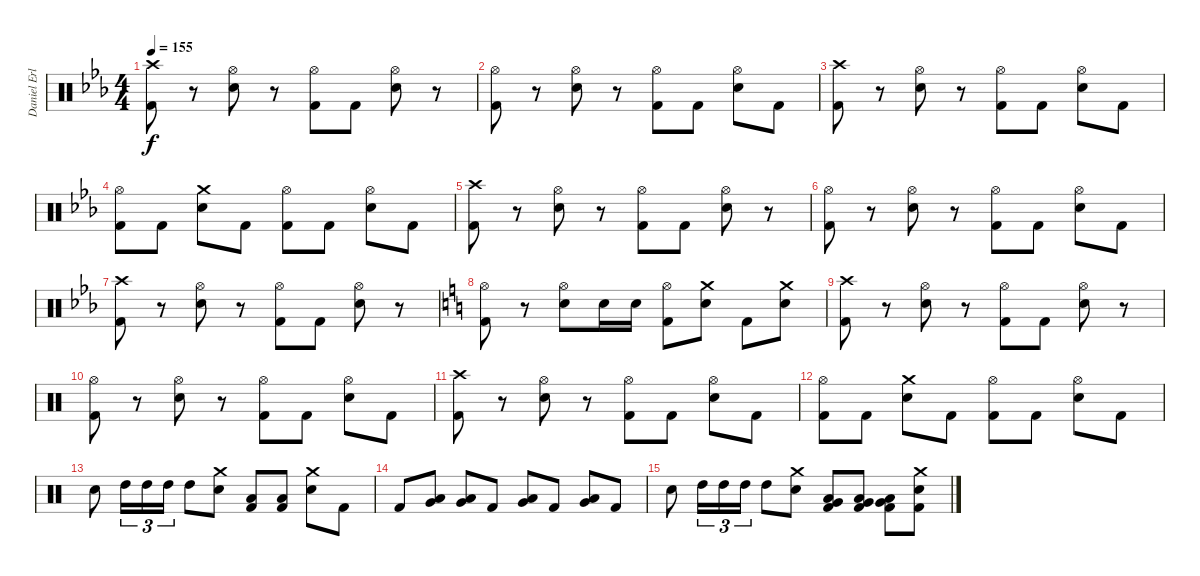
\track ("Daniel Erlandsson" "Daniel Erl") {instrument percussion}
\staff {score}
\articulation defaults
\ts (4 4)
\tempo 155
\clef neutral
\ks cminor
("Crash high (hit)" "Kick (hit) 2").8{dy f} r.8 ("Hi-Hat (open)" "Snare (hit) 2").8 r.8 ("Hi-Hat (open)" "Kick (hit) 2").8 "Kick (hit) 2".8 ("Hi-Hat (open)" "Snare (hit) 2").8 r.8 |
("Hi-Hat (open)" "Kick (hit) 2").8 r.8 ("Hi-Hat (open)" "Snare (hit) 2").8 r.8 ("Hi-Hat (open)" "Kick (hit) 2").8 "Kick (hit) 2".8 ("Hi-Hat (open)" "Snare (hit) 2").8 "Kick (hit) 2".8 |
("Crash high (hit)" "Kick (hit) 2").8 r.8 ("Hi-Hat (open)" "Snare (hit) 2").8 r.8 ("Hi-Hat (open)" "Kick (hit) 2").8 "Kick (hit) 2".8 ("Hi-Hat (open)" "Snare (hit) 2").8 "Kick (hit) 2".8 |
("Hi-Hat (open)" "Kick (hit) 2").8 "Kick (hit) 2".8 ("Crash medium (hit)" "Snare (hit) 2").8 "Kick (hit) 2".8 ("Hi-Hat (open)" "Kick (hit) 2").8 "Kick (hit) 2".8 ("Hi-Hat (open)" "Snare (hit) 2").8 "Kick (hit) 2".8 |
("Crash high (hit)" "Kick (hit) 2").8 r.8 ("Hi-Hat (open)" "Snare (hit) 2").8 r.8 ("Hi-Hat (open)" "Kick (hit) 2").8 "Kick (hit) 2".8 ("Hi-Hat (open)" "Snare (hit) 2").8 r.8 |
("Hi-Hat (open)" "Kick (hit) 2").8 r.8 ("Hi-Hat (open)" "Snare (hit) 2").8 r.8 ("Hi-Hat (open)" "Kick (hit) 2").8 "Kick (hit) 2".8 ("Hi-Hat (open)" "Snare (hit) 2").8 "Kick (hit) 2".8 |
("Crash high (hit)" "Kick (hit) 2").8 r.8 ("Hi-Hat (open)" "Snare (hit) 2").8 r.8 ("Hi-Hat (open)" "Kick (hit) 2").8 "Kick (hit) 2".8 ("Hi-Hat (open)" "Snare (hit) 2").8 r.8 |
\ks c
("Hi-Hat (open)" "Kick (hit) 2").8 r.8 ("Hi-Hat (open)" "Snare (hit) 2").8 "Snare (hit) 2".16 "Snare (hit) 2".16 ("Hi-Hat (open)" "Kick (hit) 2").8 ("Crash medium (hit)" "Snare (hit) 2").8 "Kick (hit) 2".8 ("Crash medium (hit)" "Snare (hit) 2").8 |
("Crash high (hit)" "Kick (hit) 2").8 r.8 ("Hi-Hat (open)" "Snare (hit) 2").8 r.8 ("Hi-Hat (open)" "Kick (hit) 2").8 "Kick (hit) 2".8 ("Hi-Hat (open)" "Snare (hit) 2").8 r.8 |
("Hi-Hat (open)" "Kick (hit) 2").8 r.8 ("Hi-Hat (open)" "Snare (hit) 2").8 r.8 ("Hi-Hat (open)" "Kick (hit) 2").8 "Kick (hit) 2".8 ("Hi-Hat (open)" "Snare (hit) 2").8 "Kick (hit) 2".8 |
("Crash high (hit)" "Kick (hit) 2").8 r.8 ("Hi-Hat (open)" "Snare (hit) 2").8 r.8 ("Hi-Hat (open)" "Kick (hit) 2").8 "Kick (hit) 2".8 ("Hi-Hat (open)" "Snare (hit) 2").8 "Kick (hit) 2".8 |
("Hi-Hat (open)" "Kick (hit) 2").8 "Kick (hit) 2".8 ("Crash medium (hit)" "Snare (hit) 2").8 "Kick (hit) 2".8 ("Hi-Hat (open)" "Kick (hit) 2").8 "Kick (hit) 2".8 ("Hi-Hat (open)" "Snare (hit) 2").8 "Kick (hit) 2".8 |
"Snare (hit) 2".8 "High Tom (hit)".16{tu (3 2)} "High Tom (hit)".16{tu (3 2)} "High Tom (hit)".16{tu (3 2)} "High Tom (hit)".8 ("Crash medium (hit)" "Snare (hit) 2").8 ("Low Tom (hit)" "Kick (hit) 2").8 ("Low Tom (hit)" "Kick (hit) 2").8 ("Crash medium (hit)" "Snare (hit) 2").8 "Kick (hit) 2".8 |
"Kick (hit) 2".8 ("Very Low Tom (hit)" "Low Tom (hit)").8 ("Very Low Tom (hit)" "Low Tom (hit)").8 "Kick (hit) 2".8 ("Very Low Tom (hit)" "Low Tom (hit)").8 "Kick (hit) 2".8 ("Low Floor Tom (hit)" "Very Low Tom (hit)").8 "Kick (hit) 2".8 |
"Snare (hit) 2".8 "High Tom (hit)".16{tu (3 2)} "High Tom (hit)".16{tu (3 2)} "High Tom (hit)".16{tu (3 2)} "High Tom (hit)".8 ("Crash medium (hit)" "Snare (hit) 2").8 ("Very Low Tom (hit)" "Low Tom (hit)" "Kick (hit) 2").8 ("Very Low Tom (hit)" "Low Tom (hit)" "Kick (hit) 2").8 ("Very Low Tom (hit)" "Low Tom (hit)" "Kick (hit) 2").8 ("Crash medium (hit)" "Snare (hit) 2" "Kick (hit) 2").8
